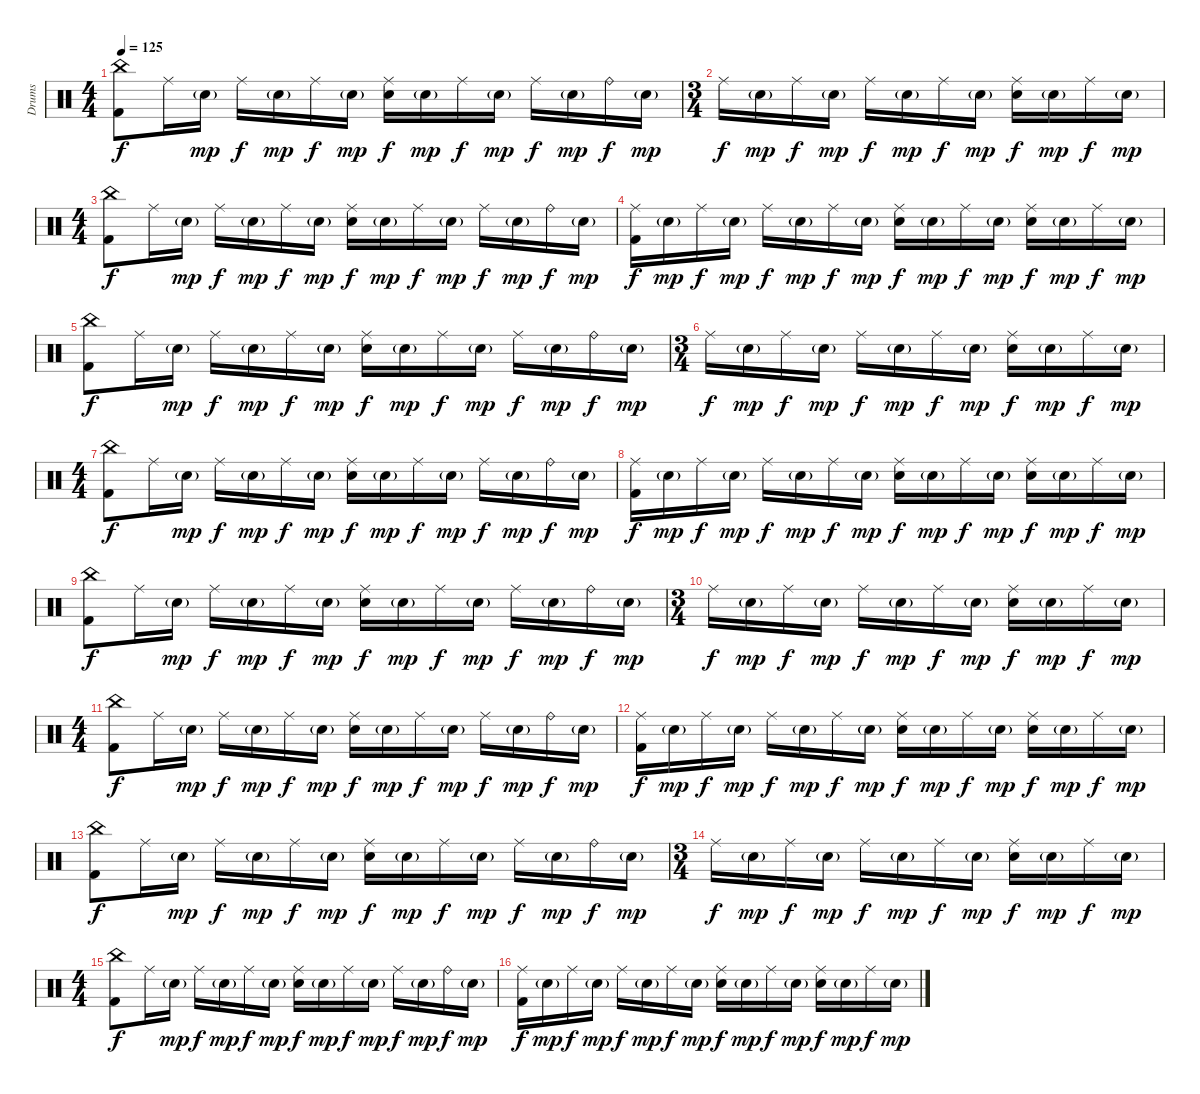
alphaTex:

\track ("Drums" "Drums") {instrument percussion}
\staff {score}
\articulation defaults
\ts (4 4)
\tempo 125
\clef neutral
\ks c
("China (hit)" "Kick (hit) 2").8{dy f} "Ride (middle)".16 "Electric Snare (hit)"{g}.16{dy mp} "Ride (middle)".16{dy f} "Electric Snare (hit)"{g}.16{dy mp} "Ride (middle)".16{dy f} "Electric Snare (hit)"{g}.16{dy mp} ("Ride (middle)" "Electric Snare (hit)").16{dy f} "Electric Snare (hit)"{g}.16{dy mp} "Ride (middle)".16{dy f} "Electric Snare (hit)"{g}.16{dy mp} "Ride (middle)".16{dy f} "Electric Snare (hit)"{g}.16{dy mp} "Ride (bell)".16{dy f} "Electric Snare (hit)"{g}.16{dy mp} |
\ts (3 4)
"Ride (middle)".16{dy f} "Electric Snare (hit)"{g}.16{dy mp} "Ride (middle)".16{dy f} "Electric Snare (hit)"{g}.16{dy mp} "Ride (middle)".16{dy f} "Electric Snare (hit)"{g}.16{dy mp} "Ride (middle)".16{dy f} "Electric Snare (hit)"{g}.16{dy mp} ("Ride (middle)" "Electric Snare (hit)").16{dy f} "Electric Snare (hit)"{g}.16{dy mp} "Ride (middle)".16{dy f} "Electric Snare (hit)"{g}.16{dy mp} |
\ts (4 4)
("China (hit)" "Kick (hit) 2").8{dy f} "Ride (middle)".16 "Electric Snare (hit)"{g}.16{dy mp} "Ride (middle)".16{dy f} "Electric Snare (hit)"{g}.16{dy mp} "Ride (middle)".16{dy f} "Electric Snare (hit)"{g}.16{dy mp} ("Ride (middle)" "Electric Snare (hit)").16{dy f} "Electric Snare (hit)"{g}.16{dy mp} "Ride (middle)".16{dy f} "Electric Snare (hit)"{g}.16{dy mp} "Ride (middle)".16{dy f} "Electric Snare (hit)"{g}.16{dy mp} "Ride (bell)".16{dy f} "Electric Snare (hit)"{g}.16{dy mp} |
("Ride (middle)" "Kick (hit) 2").16{dy f} "Electric Snare (hit)"{g}.16{dy mp} "Ride (middle)".16{dy f} "Electric Snare (hit)"{g}.16{dy mp} "Ride (middle)".16{dy f} "Electric Snare (hit)"{g}.16{dy mp} "Ride (middle)".16{dy f} "Electric Snare (hit)"{g}.16{dy mp} ("Ride (middle)" "Electric Snare (hit)").16{dy f} "Electric Snare (hit)"{g}.16{dy mp} "Ride (middle)".16{dy f} "Electric Snare (hit)"{g}.16{dy mp} ("Ride (middle)" "Electric Snare (hit)").16{dy f} "Electric Snare (hit)"{g}.16{dy mp} "Ride (middle)".16{dy f} "Electric Snare (hit)"{g}.16{dy mp} |
("China (hit)" "Kick (hit) 2").8{dy f} "Ride (middle)".16 "Electric Snare (hit)"{g}.16{dy mp} "Ride (middle)".16{dy f} "Electric Snare (hit)"{g}.16{dy mp} "Ride (middle)".16{dy f} "Electric Snare (hit)"{g}.16{dy mp} ("Ride (middle)" "Electric Snare (hit)").16{dy f} "Electric Snare (hit)"{g}.16{dy mp} "Ride (middle)".16{dy f} "Electric Snare (hit)"{g}.16{dy mp} "Ride (middle)".16{dy f} "Electric Snare (hit)"{g}.16{dy mp} "Ride (bell)".16{dy f} "Electric Snare (hit)"{g}.16{dy mp} |
\ts (3 4)
"Ride (middle)".16{dy f} "Electric Snare (hit)"{g}.16{dy mp} "Ride (middle)".16{dy f} "Electric Snare (hit)"{g}.16{dy mp} "Ride (middle)".16{dy f} "Electric Snare (hit)"{g}.16{dy mp} "Ride (middle)".16{dy f} "Electric Snare (hit)"{g}.16{dy mp} ("Ride (middle)" "Electric Snare (hit)").16{dy f} "Electric Snare (hit)"{g}.16{dy mp} "Ride (middle)".16{dy f} "Electric Snare (hit)"{g}.16{dy mp} |
\ts (4 4)
("China (hit)" "Kick (hit) 2").8{dy f} "Ride (middle)".16 "Electric Snare (hit)"{g}.16{dy mp} "Ride (middle)".16{dy f} "Electric Snare (hit)"{g}.16{dy mp} "Ride (middle)".16{dy f} "Electric Snare (hit)"{g}.16{dy mp} ("Ride (middle)" "Electric Snare (hit)").16{dy f} "Electric Snare (hit)"{g}.16{dy mp} "Ride (middle)".16{dy f} "Electric Snare (hit)"{g}.16{dy mp} "Ride (middle)".16{dy f} "Electric Snare (hit)"{g}.16{dy mp} "Ride (bell)".16{dy f} "Electric Snare (hit)"{g}.16{dy mp} |
("Ride (middle)" "Kick (hit) 2").16{dy f} "Electric Snare (hit)"{g}.16{dy mp} "Ride (middle)".16{dy f} "Electric Snare (hit)"{g}.16{dy mp} "Ride (middle)".16{dy f} "Electric Snare (hit)"{g}.16{dy mp} "Ride (middle)".16{dy f} "Electric Snare (hit)"{g}.16{dy mp} ("Ride (middle)" "Electric Snare (hit)").16{dy f} "Electric Snare (hit)"{g}.16{dy mp} "Ride (middle)".16{dy f} "Electric Snare (hit)"{g}.16{dy mp} ("Ride (middle)" "Electric Snare (hit)").16{dy f} "Electric Snare (hit)"{g}.16{dy mp} "Ride (middle)".16{dy f} "Electric Snare (hit)"{g}.16{dy mp} |
("China (hit)" "Kick (hit) 2").8{dy f} "Ride (middle)".16 "Electric Snare (hit)"{g}.16{dy mp} "Ride (middle)".16{dy f} "Electric Snare (hit)"{g}.16{dy mp} "Ride (middle)".16{dy f} "Electric Snare (hit)"{g}.16{dy mp} ("Ride (middle)" "Electric Snare (hit)").16{dy f} "Electric Snare (hit)"{g}.16{dy mp} "Ride (middle)".16{dy f} "Electric Snare (hit)"{g}.16{dy mp} "Ride (middle)".16{dy f} "Electric Snare (hit)"{g}.16{dy mp} "Ride (bell)".16{dy f} "Electric Snare (hit)"{g}.16{dy mp} |
\ts (3 4)
"Ride (middle)".16{dy f} "Electric Snare (hit)"{g}.16{dy mp} "Ride (middle)".16{dy f} "Electric Snare (hit)"{g}.16{dy mp} "Ride (middle)".16{dy f} "Electric Snare (hit)"{g}.16{dy mp} "Ride (middle)".16{dy f} "Electric Snare (hit)"{g}.16{dy mp} ("Ride (middle)" "Electric Snare (hit)").16{dy f} "Electric Snare (hit)"{g}.16{dy mp} "Ride (middle)".16{dy f} "Electric Snare (hit)"{g}.16{dy mp} |
\ts (4 4)
("China (hit)" "Kick (hit) 2").8{dy f} "Ride (middle)".16 "Electric Snare (hit)"{g}.16{dy mp} "Ride (middle)".16{dy f} "Electric Snare (hit)"{g}.16{dy mp} "Ride (middle)".16{dy f} "Electric Snare (hit)"{g}.16{dy mp} ("Ride (middle)" "Electric Snare (hit)").16{dy f} "Electric Snare (hit)"{g}.16{dy mp} "Ride (middle)".16{dy f} "Electric Snare (hit)"{g}.16{dy mp} "Ride (middle)".16{dy f} "Electric Snare (hit)"{g}.16{dy mp} "Ride (bell)".16{dy f} "Electric Snare (hit)"{g}.16{dy mp} |
("Ride (middle)" "Kick (hit) 2").16{dy f} "Electric Snare (hit)"{g}.16{dy mp} "Ride (middle)".16{dy f} "Electric Snare (hit)"{g}.16{dy mp} "Ride (middle)".16{dy f} "Electric Snare (hit)"{g}.16{dy mp} "Ride (middle)".16{dy f} "Electric Snare (hit)"{g}.16{dy mp} ("Ride (middle)" "Electric Snare (hit)").16{dy f} "Electric Snare (hit)"{g}.16{dy mp} "Ride (middle)".16{dy f} "Electric Snare (hit)"{g}.16{dy mp} ("Ride (middle)" "Electric Snare (hit)").16{dy f} "Electric Snare (hit)"{g}.16{dy mp} "Ride (middle)".16{dy f} "Electric Snare (hit)"{g}.16{dy mp} |
("China (hit)" "Kick (hit) 2").8{dy f} "Ride (middle)".16 "Electric Snare (hit)"{g}.16{dy mp} "Ride (middle)".16{dy f} "Electric Snare (hit)"{g}.16{dy mp} "Ride (middle)".16{dy f} "Electric Snare (hit)"{g}.16{dy mp} ("Ride (middle)" "Electric Snare (hit)").16{dy f} "Electric Snare (hit)"{g}.16{dy mp} "Ride (middle)".16{dy f} "Electric Snare (hit)"{g}.16{dy mp} "Ride (middle)".16{dy f} "Electric Snare (hit)"{g}.16{dy mp} "Ride (bell)".16{dy f} "Electric Snare (hit)"{g}.16{dy mp} |
\ts (3 4)
"Ride (middle)".16{dy f} "Electric Snare (hit)"{g}.16{dy mp} "Ride (middle)".16{dy f} "Electric Snare (hit)"{g}.16{dy mp} "Ride (middle)".16{dy f} "Electric Snare (hit)"{g}.16{dy mp} "Ride (middle)".16{dy f} "Electric Snare (hit)"{g}.16{dy mp} ("Ride (middle)" "Electric Snare (hit)").16{dy f} "Electric Snare (hit)"{g}.16{dy mp} "Ride (middle)".16{dy f} "Electric Snare (hit)"{g}.16{dy mp} |
\ts (4 4)
("China (hit)" "Kick (hit) 2").8{dy f} "Ride (middle)".16 "Electric Snare (hit)"{g}.16{dy mp} "Ride (middle)".16{dy f} "Electric Snare (hit)"{g}.16{dy mp} "Ride (middle)".16{dy f} "Electric Snare (hit)"{g}.16{dy mp} ("Ride (middle)" "Electric Snare (hit)").16{dy f} "Electric Snare (hit)"{g}.16{dy mp} "Ride (middle)".16{dy f} "Electric Snare (hit)"{g}.16{dy mp} "Ride (middle)".16{dy f} "Electric Snare (hit)"{g}.16{dy mp} "Ride (bell)".16{dy f} "Electric Snare (hit)"{g}.16{dy mp} |
("Ride (middle)" "Kick (hit) 2").16{dy f} "Electric Snare (hit)"{g}.16{dy mp} "Ride (middle)".16{dy f} "Electric Snare (hit)"{g}.16{dy mp} "Ride (middle)".16{dy f} "Electric Snare (hit)"{g}.16{dy mp} "Ride (middle)".16{dy f} "Electric Snare (hit)"{g}.16{dy mp} ("Ride (middle)" "Electric Snare (hit)").16{dy f} "Electric Snare (hit)"{g}.16{dy mp} "Ride (middle)".16{dy f} "Electric Snare (hit)"{g}.16{dy mp} ("Ride (middle)" "Electric Snare (hit)").16{dy f} "Electric Snare (hit)"{g}.16{dy mp} "Ride (middle)".16{dy f} "Electric Snare (hit)"{g}.16{dy mp}
